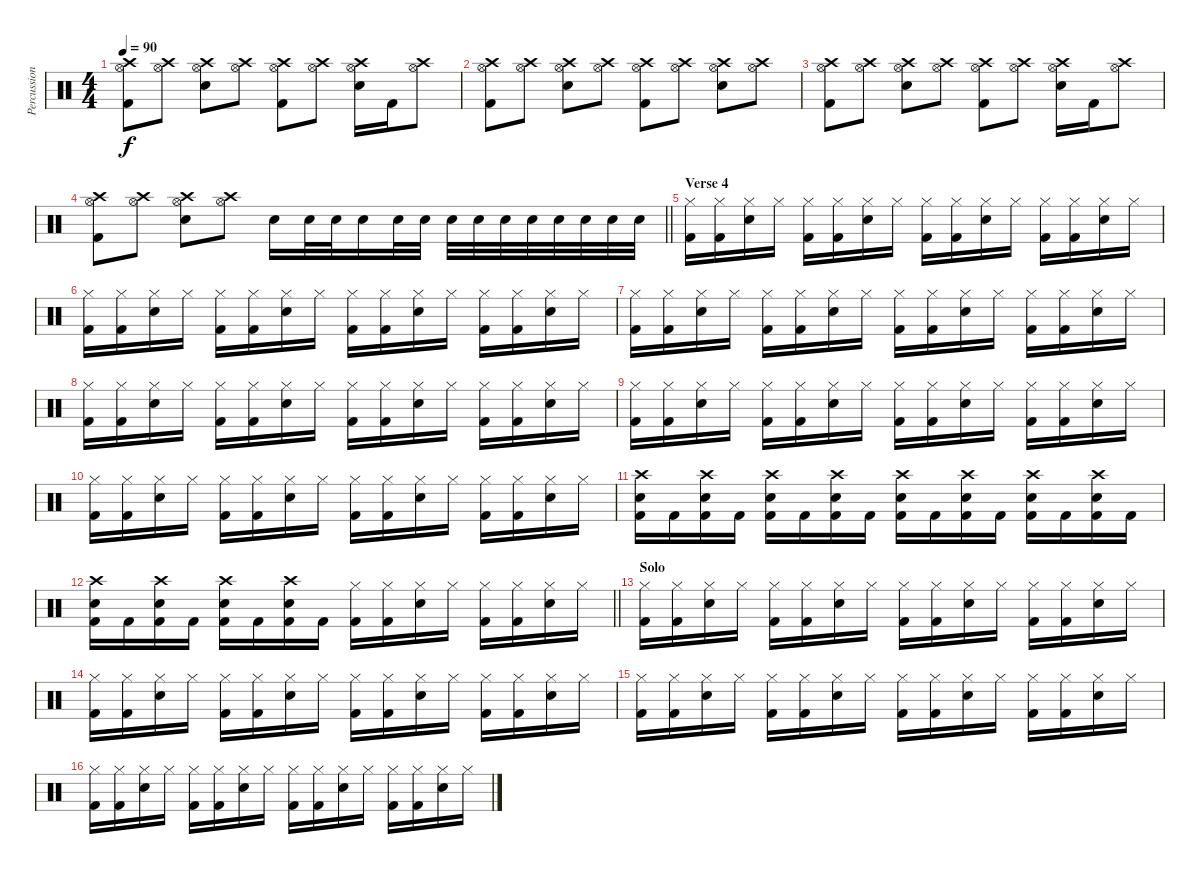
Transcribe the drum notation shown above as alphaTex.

\track ("Percussion" "Percussion") {instrument percussion}
\staff {score}
\articulation defaults
\ts (4 4)
\tempo 90
\clef neutral
\ks c
("Hi-Hat (open)" "Crash high (hit)" "Kick (hit) 2").8{dy f} ("Hi-Hat (open)" "Crash high (hit)").8 ("Hi-Hat (open)" "Crash high (hit)" "Snare (hit) 2").8 ("Hi-Hat (open)" "Crash high (hit)").8 ("Hi-Hat (open)" "Crash high (hit)" "Kick (hit) 2").8 ("Hi-Hat (open)" "Crash high (hit)").8 ("Hi-Hat (open)" "Crash high (hit)" "Snare (hit) 2").16 "Kick (hit) 2".16 ("Hi-Hat (open)" "Crash high (hit)").8 |
("Hi-Hat (open)" "Crash high (hit)" "Kick (hit) 2").8 ("Hi-Hat (open)" "Crash high (hit)").8 ("Hi-Hat (open)" "Crash high (hit)" "Snare (hit) 2").8 ("Hi-Hat (open)" "Crash high (hit)").8 ("Hi-Hat (open)" "Crash high (hit)" "Kick (hit) 2").8 ("Hi-Hat (open)" "Crash high (hit)").8 ("Hi-Hat (open)" "Crash high (hit)" "Snare (hit) 2").8 ("Hi-Hat (open)" "Crash high (hit)").8 |
("Hi-Hat (open)" "Crash high (hit)" "Kick (hit) 2").8 ("Hi-Hat (open)" "Crash high (hit)").8 ("Hi-Hat (open)" "Crash high (hit)" "Snare (hit) 2").8 ("Hi-Hat (open)" "Crash high (hit)").8 ("Hi-Hat (open)" "Crash high (hit)" "Kick (hit) 2").8 ("Hi-Hat (open)" "Crash high (hit)").8 ("Hi-Hat (open)" "Crash high (hit)" "Snare (hit) 2").16 "Kick (hit) 2".16 ("Hi-Hat (open)" "Crash high (hit)").8 |
\barLineRight lightlight
("Hi-Hat (open)" "Crash high (hit)" "Kick (hit) 2").8 ("Hi-Hat (open)" "Crash high (hit)").8 ("Hi-Hat (open)" "Crash high (hit)" "Snare (hit) 2").8 ("Hi-Hat (open)" "Crash high (hit)").8 "Snare (hit) 2".16 "Snare (hit) 2".32 "Snare (hit) 2".32 "Snare (hit) 2".16 "Snare (hit) 2".32 "Snare (hit) 2".32 "Snare (hit) 2".32 "Snare (hit) 2".32 "Snare (hit) 2".32 "Snare (hit) 2".32 "Snare (hit) 2".32 "Snare (hit) 2".32 "Snare (hit) 2".32 "Snare (hit) 2".32 |
\section ("" "Verse 4")
("Hi-Hat (closed)" "Kick (hit) 2").16 ("Hi-Hat (closed)" "Kick (hit) 2").16 ("Hi-Hat (closed)" "Snare (hit) 2").16 "Hi-Hat (closed)".16 ("Hi-Hat (closed)" "Kick (hit) 2").16 ("Hi-Hat (closed)" "Kick (hit) 2").16 ("Hi-Hat (closed)" "Snare (hit) 2").16 "Hi-Hat (closed)".16 ("Hi-Hat (closed)" "Kick (hit) 2").16 ("Hi-Hat (closed)" "Kick (hit) 2").16 ("Hi-Hat (closed)" "Snare (hit) 2").16 "Hi-Hat (closed)".16 ("Hi-Hat (closed)" "Kick (hit) 2").16 ("Hi-Hat (closed)" "Kick (hit) 2").16 ("Hi-Hat (closed)" "Snare (hit) 2").16 "Hi-Hat (closed)".16 |
("Hi-Hat (closed)" "Kick (hit) 2").16 ("Hi-Hat (closed)" "Kick (hit) 2").16 ("Hi-Hat (closed)" "Snare (hit) 2").16 "Hi-Hat (closed)".16 ("Hi-Hat (closed)" "Kick (hit) 2").16 ("Hi-Hat (closed)" "Kick (hit) 2").16 ("Hi-Hat (closed)" "Snare (hit) 2").16 "Hi-Hat (closed)".16 ("Hi-Hat (closed)" "Kick (hit) 2").16 ("Hi-Hat (closed)" "Kick (hit) 2").16 ("Hi-Hat (closed)" "Snare (hit) 2").16 "Hi-Hat (closed)".16 ("Hi-Hat (closed)" "Kick (hit) 2").16 ("Hi-Hat (closed)" "Kick (hit) 2").16 ("Hi-Hat (closed)" "Snare (hit) 2").16 "Hi-Hat (closed)".16 |
("Hi-Hat (closed)" "Kick (hit) 2").16 ("Hi-Hat (closed)" "Kick (hit) 2").16 ("Hi-Hat (closed)" "Snare (hit) 2").16 "Hi-Hat (closed)".16 ("Hi-Hat (closed)" "Kick (hit) 2").16 ("Hi-Hat (closed)" "Kick (hit) 2").16 ("Hi-Hat (closed)" "Snare (hit) 2").16 "Hi-Hat (closed)".16 ("Hi-Hat (closed)" "Kick (hit) 2").16 ("Hi-Hat (closed)" "Kick (hit) 2").16 ("Hi-Hat (closed)" "Snare (hit) 2").16 "Hi-Hat (closed)".16 ("Hi-Hat (closed)" "Kick (hit) 2").16 ("Hi-Hat (closed)" "Kick (hit) 2").16 ("Hi-Hat (closed)" "Snare (hit) 2").16 "Hi-Hat (closed)".16 |
("Hi-Hat (closed)" "Kick (hit) 2").16 ("Hi-Hat (closed)" "Kick (hit) 2").16 ("Hi-Hat (closed)" "Snare (hit) 2").16 "Hi-Hat (closed)".16 ("Hi-Hat (closed)" "Kick (hit) 2").16 ("Hi-Hat (closed)" "Kick (hit) 2").16 ("Hi-Hat (closed)" "Snare (hit) 2").16 "Hi-Hat (closed)".16 ("Hi-Hat (closed)" "Kick (hit) 2").16 ("Hi-Hat (closed)" "Kick (hit) 2").16 ("Hi-Hat (closed)" "Snare (hit) 2").16 "Hi-Hat (closed)".16 ("Hi-Hat (closed)" "Kick (hit) 2").16 ("Hi-Hat (closed)" "Kick (hit) 2").16 ("Hi-Hat (closed)" "Snare (hit) 2").16 "Hi-Hat (closed)".16 |
("Hi-Hat (closed)" "Kick (hit) 2").16 ("Hi-Hat (closed)" "Kick (hit) 2").16 ("Hi-Hat (closed)" "Snare (hit) 2").16 "Hi-Hat (closed)".16 ("Hi-Hat (closed)" "Kick (hit) 2").16 ("Hi-Hat (closed)" "Kick (hit) 2").16 ("Hi-Hat (closed)" "Snare (hit) 2").16 "Hi-Hat (closed)".16 ("Hi-Hat (closed)" "Kick (hit) 2").16 ("Hi-Hat (closed)" "Kick (hit) 2").16 ("Hi-Hat (closed)" "Snare (hit) 2").16 "Hi-Hat (closed)".16 ("Hi-Hat (closed)" "Kick (hit) 2").16 ("Hi-Hat (closed)" "Kick (hit) 2").16 ("Hi-Hat (closed)" "Snare (hit) 2").16 "Hi-Hat (closed)".16 |
("Hi-Hat (closed)" "Kick (hit) 2").16 ("Hi-Hat (closed)" "Kick (hit) 2").16 ("Hi-Hat (closed)" "Snare (hit) 2").16 "Hi-Hat (closed)".16 ("Hi-Hat (closed)" "Kick (hit) 2").16 ("Hi-Hat (closed)" "Kick (hit) 2").16 ("Hi-Hat (closed)" "Snare (hit) 2").16 "Hi-Hat (closed)".16 ("Hi-Hat (closed)" "Kick (hit) 2").16 ("Hi-Hat (closed)" "Kick (hit) 2").16 ("Hi-Hat (closed)" "Snare (hit) 2").16 "Hi-Hat (closed)".16 ("Hi-Hat (closed)" "Kick (hit) 2").16 ("Hi-Hat (closed)" "Kick (hit) 2").16 ("Hi-Hat (closed)" "Snare (hit) 2").16 "Hi-Hat (closed)".16 |
("Crash high (hit)" "Snare (hit) 2" "Kick (hit) 2").16 "Kick (hit) 2".16 ("Crash high (hit)" "Snare (hit) 2" "Kick (hit) 2").16 "Kick (hit) 2".16 ("Crash high (hit)" "Snare (hit) 2" "Kick (hit) 2").16 "Kick (hit) 2".16 ("Crash high (hit)" "Snare (hit) 2" "Kick (hit) 2").16 "Kick (hit) 2".16 ("Crash high (hit)" "Snare (hit) 2" "Kick (hit) 2").16 "Kick (hit) 2".16 ("Crash high (hit)" "Snare (hit) 2" "Kick (hit) 2").16 "Kick (hit) 2".16 ("Crash high (hit)" "Snare (hit) 2" "Kick (hit) 2").16 "Kick (hit) 2".16 ("Crash high (hit)" "Snare (hit) 2" "Kick (hit) 2").16 "Kick (hit) 2".16 |
\barLineRight lightlight
("Crash high (hit)" "Snare (hit) 2" "Kick (hit) 2").16 "Kick (hit) 2".16 ("Crash high (hit)" "Snare (hit) 2" "Kick (hit) 2").16 "Kick (hit) 2".16 ("Crash high (hit)" "Snare (hit) 2" "Kick (hit) 2").16 "Kick (hit) 2".16 ("Crash high (hit)" "Snare (hit) 2" "Kick (hit) 2").16 "Kick (hit) 2".16 ("Hi-Hat (closed)" "Kick (hit) 2").16 ("Hi-Hat (closed)" "Kick (hit) 2").16 ("Hi-Hat (closed)" "Snare (hit) 2").16 "Hi-Hat (closed)".16 ("Hi-Hat (closed)" "Kick (hit) 2").16 ("Hi-Hat (closed)" "Kick (hit) 2").16 ("Hi-Hat (closed)" "Snare (hit) 2").16 "Hi-Hat (closed)".16 |
\section ("" "Solo")
("Hi-Hat (closed)" "Kick (hit) 2").16 ("Hi-Hat (closed)" "Kick (hit) 2").16 ("Hi-Hat (closed)" "Snare (hit) 2").16 "Hi-Hat (closed)".16 ("Hi-Hat (closed)" "Kick (hit) 2").16 ("Hi-Hat (closed)" "Kick (hit) 2").16 ("Hi-Hat (closed)" "Snare (hit) 2").16 "Hi-Hat (closed)".16 ("Hi-Hat (closed)" "Kick (hit) 2").16 ("Hi-Hat (closed)" "Kick (hit) 2").16 ("Hi-Hat (closed)" "Snare (hit) 2").16 "Hi-Hat (closed)".16 ("Hi-Hat (closed)" "Kick (hit) 2").16 ("Hi-Hat (closed)" "Kick (hit) 2").16 ("Hi-Hat (closed)" "Snare (hit) 2").16 "Hi-Hat (closed)".16 |
("Hi-Hat (closed)" "Kick (hit) 2").16 ("Hi-Hat (closed)" "Kick (hit) 2").16 ("Hi-Hat (closed)" "Snare (hit) 2").16 "Hi-Hat (closed)".16 ("Hi-Hat (closed)" "Kick (hit) 2").16 ("Hi-Hat (closed)" "Kick (hit) 2").16 ("Hi-Hat (closed)" "Snare (hit) 2").16 "Hi-Hat (closed)".16 ("Hi-Hat (closed)" "Kick (hit) 2").16 ("Hi-Hat (closed)" "Kick (hit) 2").16 ("Hi-Hat (closed)" "Snare (hit) 2").16 "Hi-Hat (closed)".16 ("Hi-Hat (closed)" "Kick (hit) 2").16 ("Hi-Hat (closed)" "Kick (hit) 2").16 ("Hi-Hat (closed)" "Snare (hit) 2").16 "Hi-Hat (closed)".16 |
("Hi-Hat (closed)" "Kick (hit) 2").16 ("Hi-Hat (closed)" "Kick (hit) 2").16 ("Hi-Hat (closed)" "Snare (hit) 2").16 "Hi-Hat (closed)".16 ("Hi-Hat (closed)" "Kick (hit) 2").16 ("Hi-Hat (closed)" "Kick (hit) 2").16 ("Hi-Hat (closed)" "Snare (hit) 2").16 "Hi-Hat (closed)".16 ("Hi-Hat (closed)" "Kick (hit) 2").16 ("Hi-Hat (closed)" "Kick (hit) 2").16 ("Hi-Hat (closed)" "Snare (hit) 2").16 "Hi-Hat (closed)".16 ("Hi-Hat (closed)" "Kick (hit) 2").16 ("Hi-Hat (closed)" "Kick (hit) 2").16 ("Hi-Hat (closed)" "Snare (hit) 2").16 "Hi-Hat (closed)".16 |
("Hi-Hat (closed)" "Kick (hit) 2").16 ("Hi-Hat (closed)" "Kick (hit) 2").16 ("Hi-Hat (closed)" "Snare (hit) 2").16 "Hi-Hat (closed)".16 ("Hi-Hat (closed)" "Kick (hit) 2").16 ("Hi-Hat (closed)" "Kick (hit) 2").16 ("Hi-Hat (closed)" "Snare (hit) 2").16 "Hi-Hat (closed)".16 ("Hi-Hat (closed)" "Kick (hit) 2").16 ("Hi-Hat (closed)" "Kick (hit) 2").16 ("Hi-Hat (closed)" "Snare (hit) 2").16 "Hi-Hat (closed)".16 ("Hi-Hat (closed)" "Kick (hit) 2").16 ("Hi-Hat (closed)" "Kick (hit) 2").16 ("Hi-Hat (closed)" "Snare (hit) 2").16 "Hi-Hat (closed)".16
